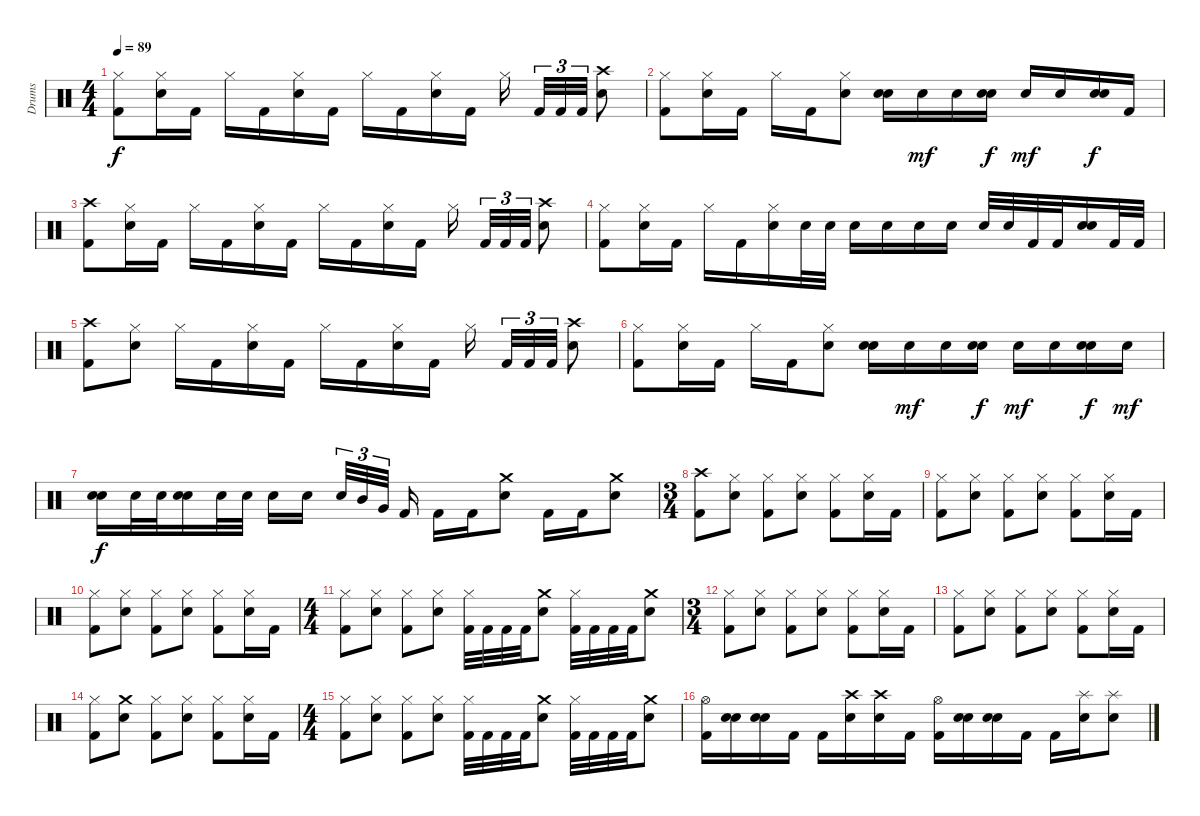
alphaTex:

\track ("Drums" "Drums") {instrument percussion}
\staff {score}
\articulation defaults
\ts (4 4)
\tempo 89
\clef neutral
\ks c
("Hi-Hat (closed)" "Kick (hit) 2").8{dy f} ("Hi-Hat (closed)" "Electric Snare (hit)").16 "Kick (hit) 2".16 "Hi-Hat (closed)".16 "Kick (hit) 2".16 ("Hi-Hat (closed)" "Electric Snare (hit)").16 "Kick (hit) 2".16 "Hi-Hat (closed)".16 "Kick (hit) 2".16 ("Hi-Hat (closed)" "Electric Snare (hit)").16 "Kick (hit) 2".16 "Hi-Hat (closed)".16{beam splitsecondary} "Kick (hit) 2".32{tu (3 2)} "Kick (hit) 2".32{tu (3 2)} "Kick (hit) 2".32{tu (3 2)} ("Crash high (hit)" "Electric Snare (hit)").8 |
("Hi-Hat (closed)" "Kick (hit) 2").8 ("Hi-Hat (closed)" "Electric Snare (hit)").16 "Kick (hit) 2".16 "Hi-Hat (closed)".16 "Kick (hit) 2".16 ("Hi-Hat (closed)" "Electric Snare (hit)").8 ("Electric Snare (hit)" "Electric Snare (hit)").16{bd 30} "Electric Snare (hit)".16{dy mf} "Electric Snare (hit)".16 ("Electric Snare (hit)" "Electric Snare (hit)").16{bd 30 dy f} "Electric Snare (hit)".16{dy mf} "Electric Snare (hit)".16 ("Electric Snare (hit)" "Electric Snare (hit)").16{bd 30 dy f} "Kick (hit) 2".16 |
("Crash high (hit)" "Kick (hit) 2").8 ("Hi-Hat (closed)" "Electric Snare (hit)").16 "Kick (hit) 2".16 "Hi-Hat (closed)".16 "Kick (hit) 2".16 ("Hi-Hat (closed)" "Electric Snare (hit)").16 "Kick (hit) 2".16 "Hi-Hat (closed)".16 "Kick (hit) 2".16 ("Hi-Hat (closed)" "Electric Snare (hit)").16 "Kick (hit) 2".16 "Hi-Hat (closed)".16{beam splitsecondary} "Kick (hit) 2".32{tu (3 2)} "Kick (hit) 2".32{tu (3 2)} "Kick (hit) 2".32{tu (3 2)} ("Crash high (hit)" "Electric Snare (hit)").8 |
("Hi-Hat (closed)" "Kick (hit) 2").8 ("Hi-Hat (closed)" "Electric Snare (hit)").16 "Kick (hit) 2".16 "Hi-Hat (closed)".16 "Kick (hit) 2".16 ("Hi-Hat (closed)" "Electric Snare (hit)").16 "Electric Snare (hit)".32 "Electric Snare (hit)".32 "Electric Snare (hit)".16 "Electric Snare (hit)".16 "Electric Snare (hit)".16 "Electric Snare (hit)".16 "Electric Snare (hit)".32 "Electric Snare (hit)".32 "Kick (hit) 2".32 "Kick (hit) 2".32 ("Electric Snare (hit)" "Electric Snare (hit)").16{bd 480} "Kick (hit) 2".32 "Kick (hit) 2".32 |
("Crash high (hit)" "Kick (hit) 2").8 ("Hi-Hat (closed)" "Electric Snare (hit)").8 "Hi-Hat (closed)".16 "Kick (hit) 2".16 ("Hi-Hat (closed)" "Electric Snare (hit)").16 "Kick (hit) 2".16 "Hi-Hat (closed)".16 "Kick (hit) 2".16 ("Hi-Hat (closed)" "Electric Snare (hit)").16 "Kick (hit) 2".16 "Hi-Hat (closed)".16{beam splitsecondary} "Kick (hit) 2".32{tu (3 2)} "Kick (hit) 2".32{tu (3 2)} "Kick (hit) 2".32{tu (3 2)} ("Crash high (hit)" "Electric Snare (hit)").8 |
("Hi-Hat (closed)" "Kick (hit) 2").8 ("Hi-Hat (closed)" "Electric Snare (hit)").16 "Kick (hit) 2".16 "Hi-Hat (closed)".16 "Kick (hit) 2".16 ("Hi-Hat (closed)" "Electric Snare (hit)").8 ("Electric Snare (hit)" "Electric Snare (hit)").16{bd 30} "Electric Snare (hit)".16{dy mf} "Electric Snare (hit)".16 ("Electric Snare (hit)" "Electric Snare (hit)").16{bd 30 dy f} "Electric Snare (hit)".16{dy mf} "Electric Snare (hit)".16 ("Electric Snare (hit)" "Electric Snare (hit)").16{bd 30 dy f} "Electric Snare (hit)".16{dy mf} |
("Electric Snare (hit)" "Electric Snare (hit)").16{bd 60 dy f} "Electric Snare (hit)".32 "Electric Snare (hit)".32 ("Electric Snare (hit)" "Electric Snare (hit)").16{bd 60} "Electric Snare (hit)".32 "Electric Snare (hit)".32 "Electric Snare (hit)".16 "Electric Snare (hit)".16{beam splitsecondary} "Electric Snare (hit)".32{tu (3 2)} "Mid Tom (hit)".32{tu (3 2)} "Very Low Tom (hit)".32{tu (3 2) beam splitsecondary} "Kick (hit) 2".16 "Kick (hit) 2".16 "Kick (hit) 2".16 ("Crash medium (hit)" "Electric Snare (hit)").8 "Kick (hit) 2".16 "Kick (hit) 2".16 ("Crash medium (hit)" "Electric Snare (hit)").8 |
\ts (3 4)
("Crash high (hit)" "Kick (hit) 2").8 ("Hi-Hat (closed)" "Electric Snare (hit)").8 ("Hi-Hat (closed)" "Kick (hit) 2").8 ("Hi-Hat (closed)" "Electric Snare (hit)").8 ("Hi-Hat (closed)" "Kick (hit) 2").8 ("Hi-Hat (closed)" "Electric Snare (hit)").16 "Kick (hit) 2".16 |
("Hi-Hat (closed)" "Kick (hit) 2").8 ("Hi-Hat (closed)" "Electric Snare (hit)").8 ("Hi-Hat (closed)" "Kick (hit) 2").8 ("Hi-Hat (closed)" "Electric Snare (hit)").8 ("Hi-Hat (closed)" "Kick (hit) 2").8 ("Hi-Hat (closed)" "Electric Snare (hit)").16 "Kick (hit) 2".16 |
("Hi-Hat (closed)" "Kick (hit) 2").8 ("Hi-Hat (closed)" "Electric Snare (hit)").8 ("Hi-Hat (closed)" "Kick (hit) 2").8 ("Hi-Hat (closed)" "Electric Snare (hit)").8 ("Hi-Hat (closed)" "Kick (hit) 2").8 ("Hi-Hat (closed)" "Electric Snare (hit)").16 "Kick (hit) 2".16 |
\ts (4 4)
("Hi-Hat (closed)" "Kick (hit) 2").8 ("Hi-Hat (closed)" "Electric Snare (hit)").8 ("Hi-Hat (closed)" "Kick (hit) 2").8 ("Hi-Hat (closed)" "Electric Snare (hit)").8 ("Hi-Hat (closed)" "Kick (hit) 2").32 "Kick (hit) 2".32 "Kick (hit) 2".32 "Kick (hit) 2".32 ("Crash medium (hit)" "Electric Snare (hit)").8 ("Hi-Hat (closed)" "Kick (hit) 2").32 "Kick (hit) 2".32 "Kick (hit) 2".32 "Kick (hit) 2".32 ("Crash medium (hit)" "Electric Snare (hit)").8 |
\ts (3 4)
("Hi-Hat (closed)" "Kick (hit) 2").8 ("Hi-Hat (closed)" "Electric Snare (hit)").8 ("Hi-Hat (closed)" "Kick (hit) 2").8 ("Hi-Hat (closed)" "Electric Snare (hit)").8 ("Hi-Hat (closed)" "Kick (hit) 2").8 ("Hi-Hat (closed)" "Electric Snare (hit)").16 "Kick (hit) 2".16 |
("Hi-Hat (closed)" "Kick (hit) 2").8 ("Hi-Hat (closed)" "Electric Snare (hit)").8 ("Hi-Hat (closed)" "Kick (hit) 2").8 ("Hi-Hat (closed)" "Electric Snare (hit)").8 ("Hi-Hat (closed)" "Kick (hit) 2").8 ("Hi-Hat (closed)" "Electric Snare (hit)").16 "Kick (hit) 2".16 |
("Hi-Hat (closed)" "Kick (hit) 2").8 ("Crash medium (hit)" "Electric Snare (hit)").8 ("Hi-Hat (closed)" "Kick (hit) 2").8 ("Hi-Hat (closed)" "Electric Snare (hit)").8 ("Hi-Hat (closed)" "Kick (hit) 2").8 ("Hi-Hat (closed)" "Electric Snare (hit)").16 "Kick (hit) 2".16 |
\ts (4 4)
("Hi-Hat (closed)" "Kick (hit) 2").8 ("Hi-Hat (closed)" "Electric Snare (hit)").8 ("Hi-Hat (closed)" "Kick (hit) 2").8 ("Hi-Hat (closed)" "Electric Snare (hit)").8 ("Hi-Hat (closed)" "Kick (hit) 2").32 "Kick (hit) 2".32 "Kick (hit) 2".32 "Kick (hit) 2".32 ("Crash medium (hit)" "Electric Snare (hit)").8 ("Hi-Hat (closed)" "Kick (hit) 2").32 "Kick (hit) 2".32 "Kick (hit) 2".32 "Kick (hit) 2".32 ("Crash medium (hit)" "Electric Snare (hit)").8 |
("Hi-Hat (open)" "Kick (hit) 2").16 ("Electric Snare (hit)" "Electric Snare (hit)").16{bd 30} ("Electric Snare (hit)" "Electric Snare (hit)").16{bd 30} "Kick (hit) 2".16 "Kick (hit) 2".16 ("Crash high (hit)" "Electric Snare (hit)").16 ("Crash high (hit)" "Electric Snare (hit)").16 "Kick (hit) 2".16 ("Hi-Hat (open)" "Kick (hit) 2").16 ("Electric Snare (hit)" "Electric Snare (hit)").16{bd 30} ("Electric Snare (hit)" "Electric Snare (hit)").16{bd 30} "Kick (hit) 2".16 "Kick (hit) 2".16 ("Splash (hit)" "Electric Snare (hit)").16 ("Splash (hit)" "Electric Snare (hit)").8
